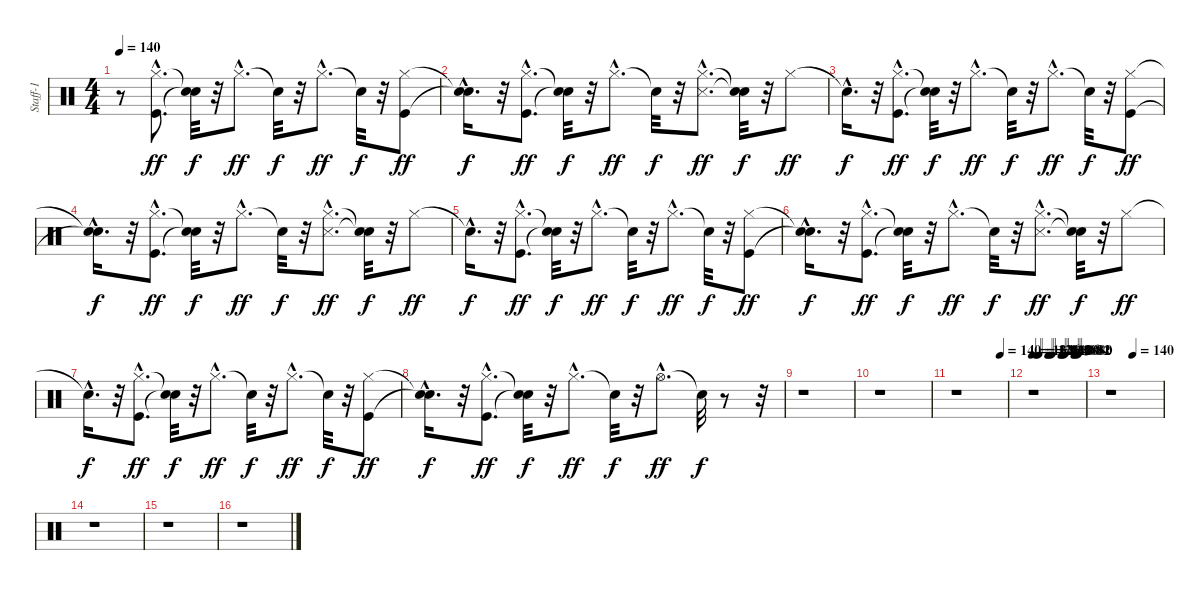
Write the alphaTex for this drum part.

\track ("Staff-1" "Staff-1") {instrument percussion}
\staff {score}
\articulation defaults
\ts (4 4)
\tempo 140
\clef neutral
\ks c
r.8{dy f} ("Kick (hit)"{hac} "Hi-Hat (closed)"{hac}).8{d dy ff volume 12} ("Snare (hit)"{t} "Snare (hit)"{t}).32{dy f} r.32 "Hi-Hat (closed)"{hac}.8{d dy ff} "Snare (hit)"{t}.32{dy f} r.32 "Hi-Hat (closed)"{hac}.8{d dy ff} "Snare (hit)"{t}.32{dy f} r.32 ("Kick (hit)" "Hi-Hat (closed)").8{dy ff} |
("Snare (hit)"{hac t} "Snare (hit)"{hac t}).16{d dy f} r.32 ("Kick (hit)"{hac} "Hi-Hat (closed)"{hac}).8{d dy ff} ("Snare (hit)"{t} "Snare (hit)"{t}).32{dy f} r.32 "Hi-Hat (closed)"{hac}.8{d dy ff} "Snare (hit)"{t}.32{dy f} r.32 ("Snare (side stick) 3"{hac} "Hi-Hat (closed)"{hac}).8{d dy ff} ("Snare (hit)"{t} "Snare (hit)"{t}).32{dy f} r.32 "Hi-Hat (closed)".8{dy ff} |
"Snare (hit)"{hac t}.16{d dy f} r.32 ("Kick (hit)"{hac} "Hi-Hat (closed)"{hac}).8{d dy ff} ("Snare (hit)"{t} "Snare (hit)"{t}).32{dy f} r.32 "Hi-Hat (closed)"{hac}.8{d dy ff} "Snare (hit)"{t}.32{dy f} r.32 "Hi-Hat (closed)"{hac}.8{d dy ff} "Snare (hit)"{t}.32{dy f} r.32 ("Kick (hit)" "Hi-Hat (closed)").8{dy ff} |
("Snare (hit)"{hac t} "Snare (hit)"{hac t}).16{d dy f} r.32 ("Kick (hit)"{hac} "Hi-Hat (closed)"{hac}).8{d dy ff} ("Snare (hit)"{t} "Snare (hit)"{t}).32{dy f} r.32 "Hi-Hat (closed)"{hac}.8{d dy ff} "Snare (hit)"{t}.32{dy f} r.32 ("Snare (side stick) 3"{hac} "Hi-Hat (closed)"{hac}).8{d dy ff} ("Snare (hit)"{t} "Snare (hit)"{t}).32{dy f} r.32 "Hi-Hat (closed)".8{dy ff} |
"Snare (hit)"{hac t}.16{d dy f} r.32 ("Kick (hit)"{hac} "Hi-Hat (closed)"{hac}).8{d dy ff} ("Snare (hit)"{t} "Snare (hit)"{t}).32{dy f} r.32 "Hi-Hat (closed)"{hac}.8{d dy ff} "Snare (hit)"{t}.32{dy f} r.32 "Hi-Hat (closed)"{hac}.8{d dy ff} "Snare (hit)"{t}.32{dy f} r.32 ("Kick (hit)" "Hi-Hat (closed)").8{dy ff} |
("Snare (hit)"{hac t} "Snare (hit)"{hac t}).16{d dy f} r.32 ("Kick (hit)"{hac} "Hi-Hat (closed)"{hac}).8{d dy ff} ("Snare (hit)"{t} "Snare (hit)"{t}).32{dy f} r.32 "Hi-Hat (closed)"{hac}.8{d dy ff} "Snare (hit)"{t}.32{dy f} r.32 ("Snare (side stick) 3"{hac} "Hi-Hat (closed)"{hac}).8{d dy ff} ("Snare (hit)"{t} "Snare (hit)"{t}).32{dy f} r.32 "Hi-Hat (closed)".8{dy ff} |
"Snare (hit)"{hac t}.16{d dy f} r.32 ("Kick (hit)"{hac} "Hi-Hat (closed)"{hac}).8{d dy ff} ("Snare (hit)"{t} "Snare (hit)"{t}).32{dy f} r.32 "Hi-Hat (closed)"{hac}.8{d dy ff} "Snare (hit)"{t}.32{dy f} r.32 "Hi-Hat (closed)"{hac}.8{d dy ff} "Snare (hit)"{t}.32{dy f} r.32 ("Kick (hit)" "Hi-Hat (closed)").8{dy ff} |
("Snare (hit)"{hac t} "Snare (hit)"{hac t}).16{d dy f} r.32 ("Kick (hit)"{hac} "Hi-Hat (closed)"{hac}).8{d dy ff} ("Snare (hit)"{t} "Snare (hit)"{t}).32{dy f} r.32 "Hi-Hat (closed)"{hac}.8{d dy ff} "Snare (hit)"{t}.32{dy f} r.32 "Hi-Hat (open)"{hac}.8{d dy ff} "Snare (hit)"{t}.32{dy f} r.8 r.32 |
r.1 |
r.1 |
\tempo (140 0.875)
r.1 |
\tempo 134
\tempo (128 0.09375)
\tempo (126 0.125)
\tempo (114 0.3125)
\tempo (112 0.34375)
\tempo (110 0.375)
\tempo (100 0.5625)
\tempo (98 0.59375)
\tempo (96 0.625)
\tempo (84 0.8125)
\tempo (82 0.84375)
\tempo (80 0.875)
r.1 |
\tempo (140 0.4375)
r.1 |
r.1 |
r.1 |
r.1
